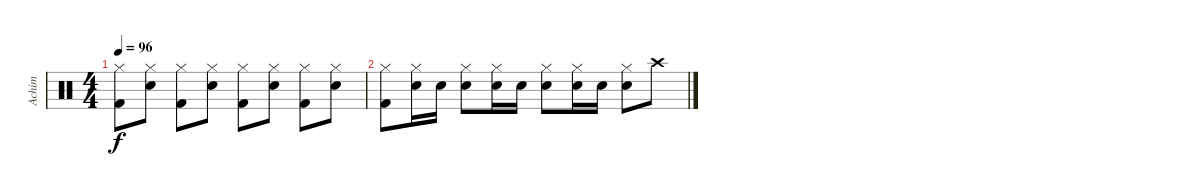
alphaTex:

\track ("Achim" "Achim") {instrument percussion}
\staff {score}
\articulation defaults
\ts (4 4)
\tempo 96
\clef neutral
\ks c
("Hi-Hat (closed)" "Kick (hit) 2").8{dy f} ("Hi-Hat (closed)" "Snare (hit) 2").8 ("Hi-Hat (closed)" "Kick (hit) 2").8 ("Hi-Hat (closed)" "Snare (hit) 2").8 ("Hi-Hat (closed)" "Kick (hit) 2").8 ("Hi-Hat (closed)" "Snare (hit) 2").8 ("Hi-Hat (closed)" "Kick (hit) 2").8 ("Hi-Hat (closed)" "Snare (hit) 2").8 |
("Hi-Hat (closed)" "Kick (hit) 2").8 ("Hi-Hat (closed)" "Snare (hit) 2").16 "Snare (hit) 2".16 ("Hi-Hat (closed)" "Snare (hit) 2").8 ("Hi-Hat (closed)" "Snare (hit) 2").16 "Snare (hit) 2".16 ("Hi-Hat (closed)" "Snare (hit) 2").8 ("Hi-Hat (closed)" "Snare (hit) 2").16 "Snare (hit) 2".16 ("Hi-Hat (closed)" "Snare (hit) 2").8 "Crash high (hit)".8
